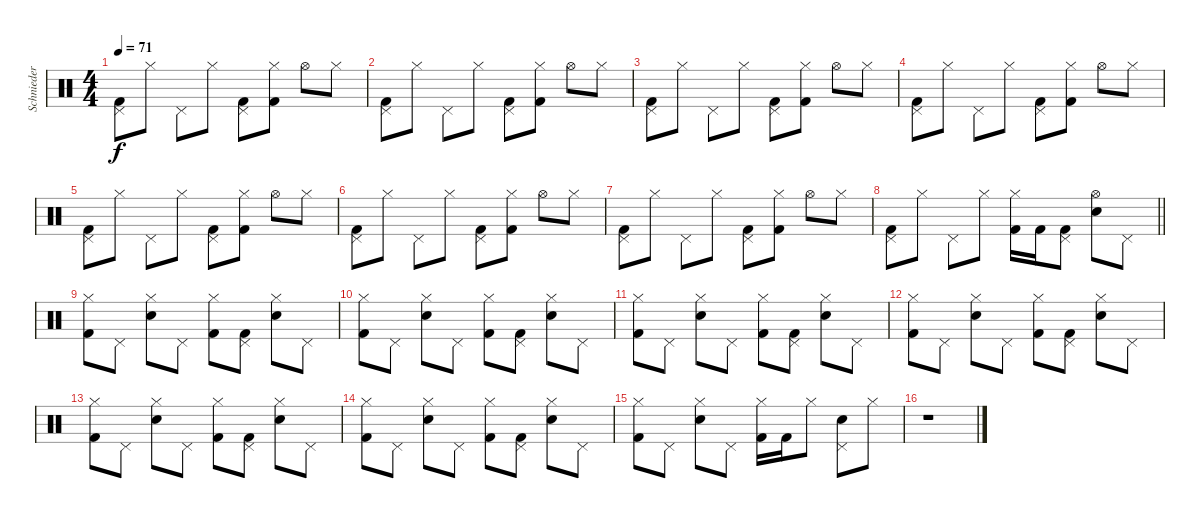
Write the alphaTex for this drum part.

\track ("Schnieder" "Schnieder") {instrument percussion}
\staff {score}
\articulation defaults
\ts (4 4)
\tempo 71
\clef neutral
\ks c
("Pedal Hi-Hat (hit)" "Kick (hit) 2").8{dy f} "Hi-Hat (closed)".8 "Pedal Hi-Hat (hit)".8 "Hi-Hat (closed)".8 ("Pedal Hi-Hat (hit)" "Kick (hit) 2").8 ("Hi-Hat (closed)" "Kick (hit) 2").8 "Hi-Hat (open)".8 "Hi-Hat (closed)".8 |
("Pedal Hi-Hat (hit)" "Kick (hit) 2").8 "Hi-Hat (closed)".8 "Pedal Hi-Hat (hit)".8 "Hi-Hat (closed)".8 ("Pedal Hi-Hat (hit)" "Kick (hit) 2").8 ("Hi-Hat (closed)" "Kick (hit) 2").8 "Hi-Hat (open)".8 "Hi-Hat (closed)".8 |
("Pedal Hi-Hat (hit)" "Kick (hit) 2").8 "Hi-Hat (closed)".8 "Pedal Hi-Hat (hit)".8 "Hi-Hat (closed)".8 ("Pedal Hi-Hat (hit)" "Kick (hit) 2").8 ("Hi-Hat (closed)" "Kick (hit) 2").8 "Hi-Hat (open)".8 "Hi-Hat (closed)".8 |
("Pedal Hi-Hat (hit)" "Kick (hit) 2").8 "Hi-Hat (closed)".8 "Pedal Hi-Hat (hit)".8 "Hi-Hat (closed)".8 ("Pedal Hi-Hat (hit)" "Kick (hit) 2").8 ("Hi-Hat (closed)" "Kick (hit) 2").8 "Hi-Hat (open)".8 "Hi-Hat (closed)".8 |
("Pedal Hi-Hat (hit)" "Kick (hit) 2").8 "Hi-Hat (closed)".8 "Pedal Hi-Hat (hit)".8 "Hi-Hat (closed)".8 ("Pedal Hi-Hat (hit)" "Kick (hit) 2").8 ("Hi-Hat (closed)" "Kick (hit) 2").8 "Hi-Hat (open)".8 "Hi-Hat (closed)".8 |
("Pedal Hi-Hat (hit)" "Kick (hit) 2").8 "Hi-Hat (closed)".8 "Pedal Hi-Hat (hit)".8 "Hi-Hat (closed)".8 ("Pedal Hi-Hat (hit)" "Kick (hit) 2").8 ("Hi-Hat (closed)" "Kick (hit) 2").8 "Hi-Hat (open)".8 "Hi-Hat (closed)".8 |
("Pedal Hi-Hat (hit)" "Kick (hit) 2").8 "Hi-Hat (closed)".8 "Pedal Hi-Hat (hit)".8 "Hi-Hat (closed)".8 ("Pedal Hi-Hat (hit)" "Kick (hit) 2").8 ("Hi-Hat (closed)" "Kick (hit) 2").8 "Hi-Hat (open)".8 "Hi-Hat (closed)".8 |
\barLineRight lightlight
("Pedal Hi-Hat (hit)" "Kick (hit) 2").8 "Hi-Hat (closed)".8 "Pedal Hi-Hat (hit)".8 "Hi-Hat (closed)".8 ("Hi-Hat (closed)" "Kick (hit) 2").16 "Kick (hit) 2".16 ("Pedal Hi-Hat (hit)" "Kick (hit) 2").8 ("Hi-Hat (open)" "Electric Snare (hit)").8 "Pedal Hi-Hat (hit)".8 |
("Hi-Hat (closed)" "Kick (hit) 2").8 "Pedal Hi-Hat (hit)".8 ("Hi-Hat (closed)" "Electric Snare (hit)").8 "Pedal Hi-Hat (hit)".8 ("Hi-Hat (closed)" "Kick (hit) 2").8 ("Pedal Hi-Hat (hit)" "Kick (hit) 2").8 ("Hi-Hat (closed)" "Electric Snare (hit)").8 "Pedal Hi-Hat (hit)".8 |
("Hi-Hat (closed)" "Kick (hit) 2").8 "Pedal Hi-Hat (hit)".8 ("Hi-Hat (closed)" "Electric Snare (hit)").8 "Pedal Hi-Hat (hit)".8 ("Hi-Hat (closed)" "Kick (hit) 2").8 ("Pedal Hi-Hat (hit)" "Kick (hit) 2").8 ("Hi-Hat (closed)" "Electric Snare (hit)").8 "Pedal Hi-Hat (hit)".8 |
("Hi-Hat (closed)" "Kick (hit) 2").8 "Pedal Hi-Hat (hit)".8 ("Hi-Hat (closed)" "Electric Snare (hit)").8 "Pedal Hi-Hat (hit)".8 ("Hi-Hat (closed)" "Kick (hit) 2").8 ("Pedal Hi-Hat (hit)" "Kick (hit) 2").8 ("Hi-Hat (closed)" "Electric Snare (hit)").8 "Pedal Hi-Hat (hit)".8 |
("Hi-Hat (closed)" "Kick (hit) 2").8 "Pedal Hi-Hat (hit)".8 ("Hi-Hat (closed)" "Electric Snare (hit)").8 "Pedal Hi-Hat (hit)".8 ("Hi-Hat (closed)" "Kick (hit) 2").8 ("Pedal Hi-Hat (hit)" "Kick (hit) 2").8 ("Hi-Hat (closed)" "Electric Snare (hit)").8 "Pedal Hi-Hat (hit)".8 |
("Hi-Hat (closed)" "Kick (hit) 2").8 "Pedal Hi-Hat (hit)".8 ("Hi-Hat (closed)" "Electric Snare (hit)").8 "Pedal Hi-Hat (hit)".8 ("Hi-Hat (closed)" "Kick (hit) 2").8 ("Pedal Hi-Hat (hit)" "Kick (hit) 2").8 ("Hi-Hat (closed)" "Electric Snare (hit)").8 "Pedal Hi-Hat (hit)".8 |
("Hi-Hat (closed)" "Kick (hit) 2").8 "Pedal Hi-Hat (hit)".8 ("Hi-Hat (closed)" "Electric Snare (hit)").8 "Pedal Hi-Hat (hit)".8 ("Hi-Hat (closed)" "Kick (hit) 2").8 ("Pedal Hi-Hat (hit)" "Kick (hit) 2").8 ("Hi-Hat (closed)" "Electric Snare (hit)").8 "Pedal Hi-Hat (hit)".8 |
("Hi-Hat (closed)" "Kick (hit) 2").8 "Pedal Hi-Hat (hit)".8 ("Hi-Hat (closed)" "Electric Snare (hit)").8 "Pedal Hi-Hat (hit)".8 ("Hi-Hat (closed)" "Kick (hit) 2").16 "Kick (hit) 2".16 "Hi-Hat (closed)".8 ("Pedal Hi-Hat (hit)" "Electric Snare (hit)").8 "Hi-Hat (closed)".8 |
r.1
